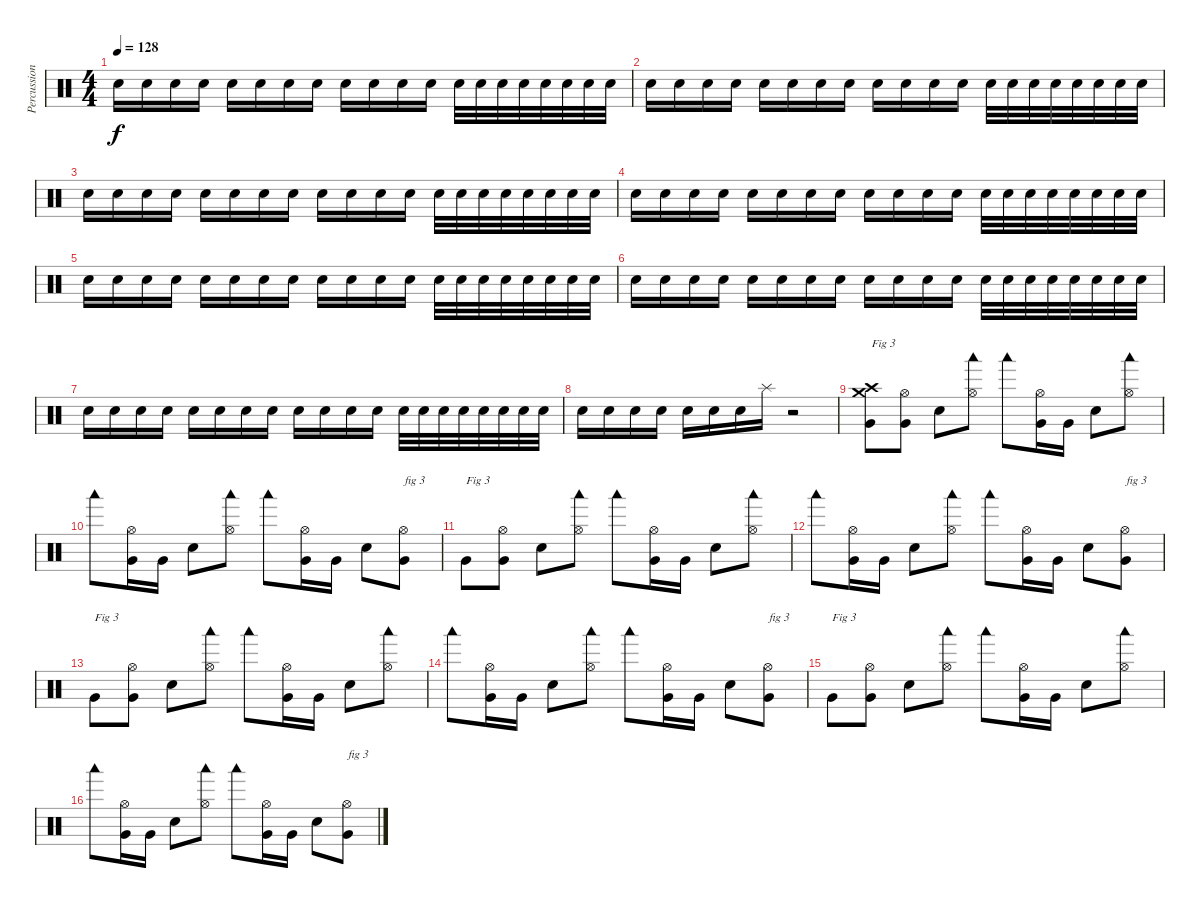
\track ("Percussions" "Percussion") {instrument percussion}
\staff {score}
\articulation defaults
\ts (4 4)
\tempo 128
\clef neutral
\ks c "Snare (hit) 2".16{dy f volume 16} "Snare (hit) 2".16{volume 9} "Snare (hit) 2".16 "Snare (hit) 2".16{volume 16} "Snare (hit) 2".16{volume 9} "Snare (hit) 2".16 "Snare (hit) 2".16{volume 16} "Snare (hit) 2".16{volume 9} "Snare (hit) 2".16 "Snare (hit) 2".16 "Snare (hit) 2".16{volume 16} "Snare (hit) 2".16{volume 9} "Snare (hit) 2".32{volume 16} "Snare (hit) 2".32{volume 9} "Snare (hit) 2".32 "Snare (hit) 2".32 "Snare (hit) 2".32 "Snare (hit) 2".32 "Snare (hit) 2".32 "Snare (hit) 2".32
|
"Snare (hit) 2".16{volume 16} "Snare (hit) 2".16{volume 9} "Snare (hit) 2".16 "Snare (hit) 2".16{volume 16} "Snare (hit) 2".16{volume 9} "Snare (hit) 2".16 "Snare (hit) 2".16{volume 16} "Snare (hit) 2".16{volume 9} "Snare (hit) 2".16 "Snare (hit) 2".16 "Snare (hit) 2".16{volume 16} "Snare (hit) 2".16{volume 9} "Snare (hit) 2".32{volume 16} "Snare (hit) 2".32{volume 9} "Snare (hit) 2".32 "Snare (hit) 2".32 "Snare (hit) 2".32 "Snare (hit) 2".32 "Snare (hit) 2".32 "Snare (hit) 2".32 |
"Snare (hit) 2".16{volume 16} "Snare (hit) 2".16{volume 9} "Snare (hit) 2".16 "Snare (hit) 2".16{volume 16} "Snare (hit) 2".16{volume 9} "Snare (hit) 2".16 "Snare (hit) 2".16{volume 16} "Snare (hit) 2".16{volume 9} "Snare (hit) 2".16 "Snare (hit) 2".16 "Snare (hit) 2".16{volume 16} "Snare (hit) 2".16{volume 9} "Snare (hit) 2".32{volume 16} "Snare (hit) 2".32{volume 9} "Snare (hit) 2".32 "Snare (hit) 2".32 "Snare (hit) 2".32 "Snare (hit) 2".32 "Snare (hit) 2".32 "Snare (hit) 2".32 |
"Snare (hit) 2".16{volume 16} "Snare (hit) 2".16{volume 9} "Snare (hit) 2".16 "Snare (hit) 2".16{volume 16} "Snare (hit) 2".16{volume 9} "Snare (hit) 2".16 "Snare (hit) 2".16{volume 16} "Snare (hit) 2".16{volume 9} "Snare (hit) 2".16 "Snare (hit) 2".16 "Snare (hit) 2".16{volume 16} "Snare (hit) 2".16{volume 9} "Snare (hit) 2".32{volume 16} "Snare (hit) 2".32{volume 9} "Snare (hit) 2".32 "Snare (hit) 2".32 "Snare (hit) 2".32 "Snare (hit) 2".32 "Snare (hit) 2".32 "Snare (hit) 2".32 |
"Snare (hit) 2".16{volume 16} "Snare (hit) 2".16{volume 9} "Snare (hit) 2".16 "Snare (hit) 2".16{volume 16} "Snare (hit) 2".16{volume 9} "Snare (hit) 2".16 "Snare (hit) 2".16{volume 16} "Snare (hit) 2".16{volume 9} "Snare (hit) 2".16 "Snare (hit) 2".16 "Snare (hit) 2".16{volume 16} "Snare (hit) 2".16{volume 9} "Snare (hit) 2".32{volume 16} "Snare (hit) 2".32{volume 9} "Snare (hit) 2".32 "Snare (hit) 2".32 "Snare (hit) 2".32 "Snare (hit) 2".32 "Snare (hit) 2".32 "Snare (hit) 2".32 |
"Snare (hit) 2".16{volume 16} "Snare (hit) 2".16{volume 9} "Snare (hit) 2".16 "Snare (hit) 2".16{volume 16} "Snare (hit) 2".16{volume 9} "Snare (hit) 2".16 "Snare (hit) 2".16{volume 16} "Snare (hit) 2".16{volume 9} "Snare (hit) 2".16 "Snare (hit) 2".16 "Snare (hit) 2".16{volume 16} "Snare (hit) 2".16{volume 9} "Snare (hit) 2".32{volume 16} "Snare (hit) 2".32{volume 9} "Snare (hit) 2".32 "Snare (hit) 2".32 "Snare (hit) 2".32 "Snare (hit) 2".32 "Snare (hit) 2".32 "Snare (hit) 2".32 |
"Snare (hit) 2".16{volume 16} "Snare (hit) 2".16{volume 9} "Snare (hit) 2".16 "Snare (hit) 2".16{volume 16} "Snare (hit) 2".16{volume 9} "Snare (hit) 2".16 "Snare (hit) 2".16{volume 16} "Snare (hit) 2".16{volume 9} "Snare (hit) 2".16 "Snare (hit) 2".16 "Snare (hit) 2".16{volume 16} "Snare (hit) 2".16{volume 9} "Snare (hit) 2".32{volume 16} "Snare (hit) 2".32{volume 9} "Snare (hit) 2".32 "Snare (hit) 2".32 "Snare (hit) 2".32 "Snare (hit) 2".32 "Snare (hit) 2".32 "Snare (hit) 2".32 |
"Snare (hit) 2".16{volume 16} "Snare (hit) 2".16 "Snare (hit) 2".16 "Snare (hit) 2".16 "Snare (hit) 2".16 "Snare (hit) 2".16 "Snare (hit) 2".16 "Splash (hit)".16 r.2 |
("Very Low Tom (hit)" "Crash medium (hit)" "Crash high (hit)").8{txt "Fig 3"} ("Very Low Tom (hit)" "Hi-Hat (open)").8 "Snare (hit) 2".8 ("Woodblock low (hit)" "Hi-Hat (open)").8 "Woodblock low (hit)".8 ("Very Low Tom (hit)" "Hi-Hat (open)").16 "Very Low Tom (hit)".16 "Snare (hit) 2".8 ("Woodblock low (hit)" "Hi-Hat (open)").8 |
"Woodblock low (hit)".8 ("Very Low Tom (hit)" "Hi-Hat (open)").16 "Very Low Tom (hit)".16 "Snare (hit) 2".8 ("Woodblock low (hit)" "Hi-Hat (open)").8 "Woodblock low (hit)".8 ("Very Low Tom (hit)" "Hi-Hat (open)").16 "Very Low Tom (hit)".16 "Snare (hit) 2".8 ("Very Low Tom (hit)" "Hi-Hat (open)").8{txt "fig 3"} |
"Very Low Tom (hit)".8{txt "Fig 3"} ("Very Low Tom (hit)" "Hi-Hat (open)").8 "Snare (hit) 2".8 ("Woodblock low (hit)" "Hi-Hat (open)").8 "Woodblock low (hit)".8 ("Very Low Tom (hit)" "Hi-Hat (open)").16 "Very Low Tom (hit)".16 "Snare (hit) 2".8 ("Woodblock low (hit)" "Hi-Hat (open)").8 |
"Woodblock low (hit)".8 ("Very Low Tom (hit)" "Hi-Hat (open)").16 "Very Low Tom (hit)".16 "Snare (hit) 2".8 ("Woodblock low (hit)" "Hi-Hat (open)").8 "Woodblock low (hit)".8 ("Very Low Tom (hit)" "Hi-Hat (open)").16 "Very Low Tom (hit)".16 "Snare (hit) 2".8 ("Very Low Tom (hit)" "Hi-Hat (open)").8{txt "fig 3"} |
"Very Low Tom (hit)".8{txt "Fig 3"} ("Very Low Tom (hit)" "Hi-Hat (open)").8 "Snare (hit) 2".8 ("Woodblock low (hit)" "Hi-Hat (open)").8 "Woodblock low (hit)".8 ("Very Low Tom (hit)" "Hi-Hat (open)").16 "Very Low Tom (hit)".16 "Snare (hit) 2".8 ("Woodblock low (hit)" "Hi-Hat (open)").8 |
"Woodblock low (hit)".8 ("Very Low Tom (hit)" "Hi-Hat (open)").16 "Very Low Tom (hit)".16 "Snare (hit) 2".8 ("Woodblock low (hit)" "Hi-Hat (open)").8 "Woodblock low (hit)".8 ("Very Low Tom (hit)" "Hi-Hat (open)").16 "Very Low Tom (hit)".16 "Snare (hit) 2".8 ("Very Low Tom (hit)" "Hi-Hat (open)").8{txt "fig 3"} |
"Very Low Tom (hit)".8{txt "Fig 3"} ("Very Low Tom (hit)" "Hi-Hat (open)").8 "Snare (hit) 2".8 ("Woodblock low (hit)" "Hi-Hat (open)").8 "Woodblock low (hit)".8 ("Very Low Tom (hit)" "Hi-Hat (open)").16 "Very Low Tom (hit)".16 "Snare (hit) 2".8 ("Woodblock low (hit)" "Hi-Hat (open)").8 |
"Woodblock low (hit)".8 ("Very Low Tom (hit)" "Hi-Hat (open)").16 "Very Low Tom (hit)".16 "Snare (hit) 2".8 ("Woodblock low (hit)" "Hi-Hat (open)").8 "Woodblock low (hit)".8 ("Very Low Tom (hit)" "Hi-Hat (open)").16 "Very Low Tom (hit)".16 "Snare (hit) 2".8 ("Very Low Tom (hit)" "Hi-Hat (open)").8{txt "fig 3"}
